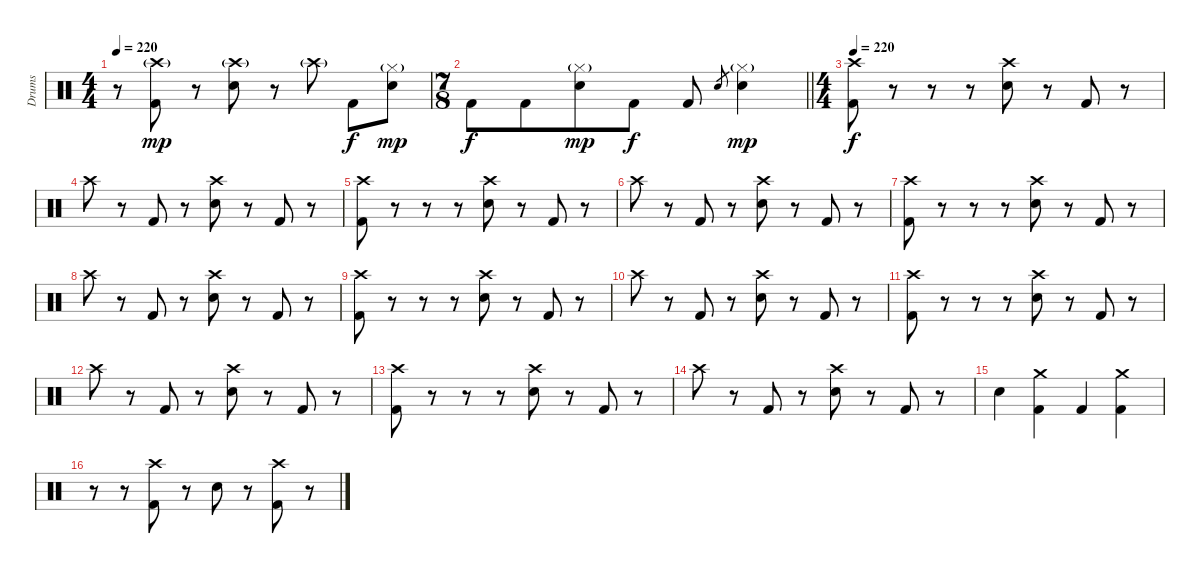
\track ("Drums" "Drums") {instrument percussion}
\staff {score}
\articulation defaults
\ts (4 4)
\tempo 220
\clef neutral
\ks c
r.8{dy mp} ("Crash high (hit)"{g} "Kick (hit) 2").8 r.8 ("Crash high (hit)"{g} "Electric Snare (hit)").8 r.8 "Crash high (hit)"{g}.8 "Kick (hit) 2".8{dy f} ("Hi-Hat (closed)"{g} "Electric Snare (hit)").8{dy mp} |
\ts (7 8)
\barLineRight lightlight "Kick (hit) 2".8{dy f} "Kick (hit) 2".8
("Hi-Hat (closed)"{g} "Electric Snare (hit)").8{dy mp} "Kick (hit) 2".8{dy f} "Kick (hit) 2".8 "Electric Snare (hit)".8{gr} ("Hi-Hat (closed)"{g} "Electric Snare (hit)").4{dy mp} |
\ts (4 4)
\tempo 220
("Crash high (hit)" "Kick (hit) 2").8{dy f} r.8 r.8 r.8 ("Crash high (hit)" "Electric Snare (hit)").8 r.8 "Kick (hit) 2".8 r.8 |
"Crash high (hit)".8 r.8 "Kick (hit) 2".8 r.8 ("Crash high (hit)" "Electric Snare (hit)").8 r.8 "Kick (hit) 2".8 r.8 |
("Crash high (hit)" "Kick (hit) 2").8 r.8 r.8 r.8 ("Crash high (hit)" "Electric Snare (hit)").8 r.8 "Kick (hit) 2".8 r.8 |
"Crash high (hit)".8 r.8 "Kick (hit) 2".8 r.8 ("Crash high (hit)" "Electric Snare (hit)").8 r.8 "Kick (hit) 2".8 r.8 |
("Crash high (hit)" "Kick (hit) 2").8 r.8 r.8 r.8 ("Crash high (hit)" "Electric Snare (hit)").8 r.8 "Kick (hit) 2".8 r.8 |
"Crash high (hit)".8 r.8 "Kick (hit) 2".8 r.8 ("Crash high (hit)" "Electric Snare (hit)").8 r.8 "Kick (hit) 2".8 r.8 |
("Crash high (hit)" "Kick (hit) 2").8 r.8 r.8 r.8 ("Crash high (hit)" "Electric Snare (hit)").8 r.8 "Kick (hit) 2".8 r.8 |
"Crash high (hit)".8 r.8 "Kick (hit) 2".8 r.8 ("Crash high (hit)" "Electric Snare (hit)").8 r.8 "Kick (hit) 2".8 r.8 |
("Crash high (hit)" "Kick (hit) 2").8 r.8 r.8 r.8 ("Crash high (hit)" "Electric Snare (hit)").8 r.8 "Kick (hit) 2".8 r.8 |
"Crash high (hit)".8 r.8 "Kick (hit) 2".8 r.8 ("Crash high (hit)" "Electric Snare (hit)").8 r.8 "Kick (hit) 2".8 r.8 |
("Crash high (hit)" "Kick (hit) 2").8 r.8 r.8 r.8 ("Crash high (hit)" "Electric Snare (hit)").8 r.8 "Kick (hit) 2".8 r.8 |
"Crash high (hit)".8 r.8 "Kick (hit) 2".8 r.8 ("Crash high (hit)" "Electric Snare (hit)").8 r.8 "Kick (hit) 2".8 r.8 |
"Electric Snare (hit)".4 ("Crash medium (hit)" "Kick (hit) 2").4 "Kick (hit) 2".4 ("Crash medium (hit)" "Kick (hit) 2").4 |
r.8 r.8 ("Crash high (hit)" "Kick (hit) 2").8 r.8 "Electric Snare (hit)".8 r.8 ("Crash high (hit)" "Kick (hit) 2").8 r.8
